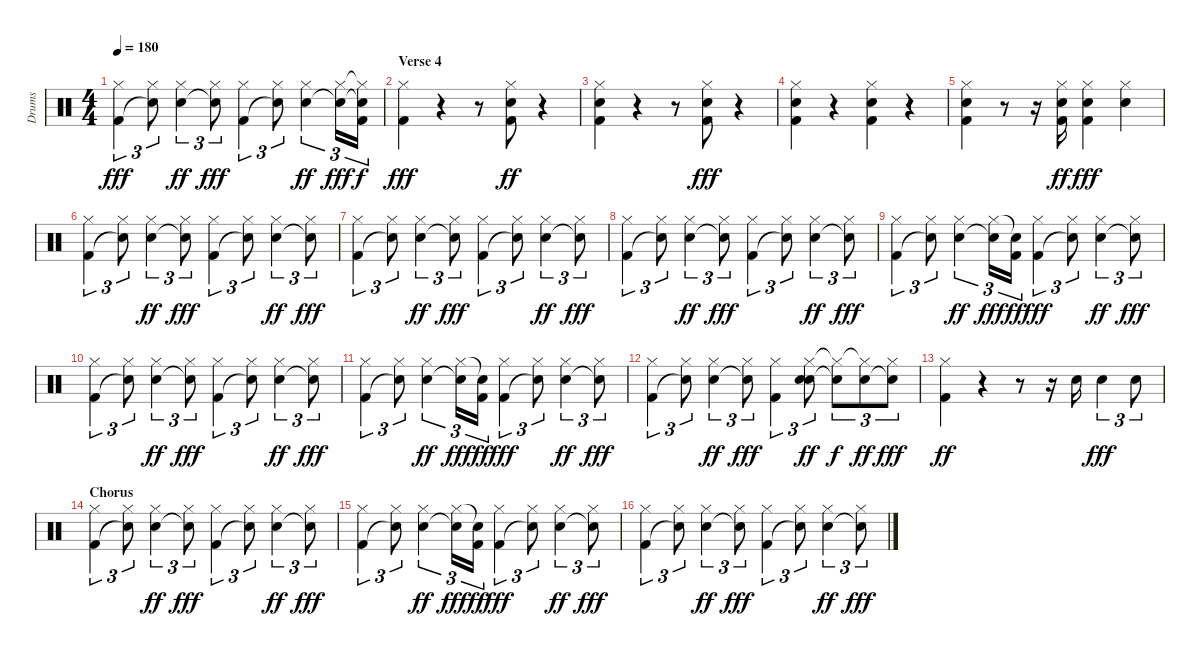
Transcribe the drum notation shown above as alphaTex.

\track ("Drums" "Drums") {instrument percussion}
\staff {score}
\articulation defaults
\ts (4 4)
\tempo 180
\clef neutral
\ks c
("Hi-Hat (closed)" "Kick (hit) 2").4{tu (3 2) dy fff} ("Hi-Hat (closed)" "Snare (hit)"{t}).8{tu (3 2)} ("Hi-Hat (closed)" "Electric Snare (hit)").4{tu (3 2) dy ff} ("Hi-Hat (closed)" "Snare (hit)"{t}).8{tu (3 2) dy fff} ("Hi-Hat (closed)" "Kick (hit) 2").4{tu (3 2)} ("Hi-Hat (closed)" "Snare (hit)"{t}).8{tu (3 2)} ("Hi-Hat (closed)" "Electric Snare (hit)").4{tu (3 2) dy ff} ("Hi-Hat (closed)" "Snare (hit)"{t}).16{tu (3 2) dy fff} ("Hi-Hat (closed)"{t} "Snare (hit)"{t} "Kick (hit) 2").16{tu (3 2) dy f} |
\section ("" "Verse 4")
("Hi-Hat (closed)" "Kick (hit) 2").4{dy fff} r.4 r.8 ("Hi-Hat (closed)" "Electric Snare (hit)" "Kick (hit) 2").8{dy ff} r.4 |
("Hi-Hat (closed)" "Electric Snare (hit)" "Kick (hit) 2").4 r.4 r.8 ("Hi-Hat (closed)" "Electric Snare (hit)" "Kick (hit) 2").8{dy fff} r.4 |
("Hi-Hat (closed)" "Electric Snare (hit)" "Kick (hit) 2").4 r.4 ("Hi-Hat (closed)" "Electric Snare (hit)" "Kick (hit) 2").4 r.4 |
("Hi-Hat (closed)" "Electric Snare (hit)" "Kick (hit) 2").4 r.8 r.16 ("Hi-Hat (closed)" "Electric Snare (hit)" "Kick (hit) 2").16{dy ff} ("Hi-Hat (closed)" "Electric Snare (hit)" "Kick (hit) 2").4{dy fff} ("Hi-Hat (closed)" "Electric Snare (hit)").4 |
("Hi-Hat (closed)" "Kick (hit) 2").4{tu (3 2)} ("Hi-Hat (closed)" "Snare (hit)"{t}).8{tu (3 2)} ("Hi-Hat (closed)" "Electric Snare (hit)").4{tu (3 2) dy ff} ("Hi-Hat (closed)" "Snare (hit)"{t}).8{tu (3 2) dy fff} ("Hi-Hat (closed)" "Kick (hit) 2").4{tu (3 2)} ("Hi-Hat (closed)" "Snare (hit)"{t}).8{tu (3 2)} ("Hi-Hat (closed)" "Electric Snare (hit)").4{tu (3 2) dy ff} ("Hi-Hat (closed)" "Snare (hit)"{t}).8{tu (3 2) dy fff} |
("Hi-Hat (closed)" "Kick (hit) 2").4{tu (3 2)} ("Hi-Hat (closed)" "Snare (hit)"{t}).8{tu (3 2)} ("Hi-Hat (closed)" "Electric Snare (hit)").4{tu (3 2) dy ff} ("Hi-Hat (closed)" "Snare (hit)"{t}).8{tu (3 2) dy fff} ("Hi-Hat (closed)" "Kick (hit) 2").4{tu (3 2)} ("Hi-Hat (closed)" "Snare (hit)"{t}).8{tu (3 2)} ("Hi-Hat (closed)" "Electric Snare (hit)").4{tu (3 2) dy ff} ("Hi-Hat (closed)" "Snare (hit)"{t}).8{tu (3 2) dy fff} |
("Hi-Hat (closed)" "Kick (hit) 2").4{tu (3 2)} ("Hi-Hat (closed)" "Snare (hit)"{t}).8{tu (3 2)} ("Hi-Hat (closed)" "Electric Snare (hit)").4{tu (3 2) dy ff} ("Hi-Hat (closed)" "Snare (hit)"{t}).8{tu (3 2) dy fff} ("Hi-Hat (closed)" "Kick (hit) 2").4{tu (3 2)} ("Hi-Hat (closed)" "Snare (hit)"{t}).8{tu (3 2)} ("Hi-Hat (closed)" "Electric Snare (hit)").4{tu (3 2) dy ff} ("Hi-Hat (closed)" "Snare (hit)"{t}).8{tu (3 2) dy fff} |
("Hi-Hat (closed)" "Kick (hit) 2").4{tu (3 2)} ("Hi-Hat (closed)" "Snare (hit)"{t}).8{tu (3 2)} ("Hi-Hat (closed)" "Electric Snare (hit)").4{tu (3 2) dy ff} ("Hi-Hat (closed)" "Snare (hit)"{t}).16{tu (3 2) dy fff} ("Snare (hit)"{t} "Kick (hit) 2").16{tu (3 2) dy ff} ("Hi-Hat (closed)" "Kick (hit) 2").4{tu (3 2) dy fff} ("Hi-Hat (closed)" "Snare (hit)"{t}).8{tu (3 2)} ("Hi-Hat (closed)" "Electric Snare (hit)").4{tu (3 2) dy ff} ("Hi-Hat (closed)" "Snare (hit)"{t}).8{tu (3 2) dy fff} |
("Hi-Hat (closed)" "Kick (hit) 2").4{tu (3 2)} ("Hi-Hat (closed)" "Snare (hit)"{t}).8{tu (3 2)} ("Hi-Hat (closed)" "Electric Snare (hit)").4{tu (3 2) dy ff} ("Hi-Hat (closed)" "Snare (hit)"{t}).8{tu (3 2) dy fff} ("Hi-Hat (closed)" "Kick (hit) 2").4{tu (3 2)} ("Hi-Hat (closed)" "Snare (hit)"{t}).8{tu (3 2)} ("Hi-Hat (closed)" "Electric Snare (hit)").4{tu (3 2) dy ff} ("Hi-Hat (closed)" "Snare (hit)"{t}).8{tu (3 2) dy fff} |
("Hi-Hat (closed)" "Kick (hit) 2").4{tu (3 2)} ("Hi-Hat (closed)" "Snare (hit)"{t}).8{tu (3 2)} ("Hi-Hat (closed)" "Electric Snare (hit)").4{tu (3 2) dy ff} ("Hi-Hat (closed)" "Snare (hit)"{t}).16{tu (3 2) dy fff} ("Snare (hit)"{t} "Kick (hit) 2").16{tu (3 2) dy ff} ("Hi-Hat (closed)" "Kick (hit) 2").4{tu (3 2) dy fff} ("Hi-Hat (closed)" "Snare (hit)"{t}).8{tu (3 2)} ("Hi-Hat (closed)" "Electric Snare (hit)").4{tu (3 2) dy ff} ("Hi-Hat (closed)" "Snare (hit)"{t}).8{tu (3 2) dy fff} |
("Hi-Hat (closed)" "Kick (hit) 2").4{tu (3 2)} ("Hi-Hat (closed)" "Snare (hit)"{t}).8{tu (3 2)} ("Hi-Hat (closed)" "Electric Snare (hit)").4{tu (3 2) dy ff} ("Hi-Hat (closed)" "Snare (hit)"{t}).8{tu (3 2) dy fff} ("Hi-Hat (closed)" "Kick (hit) 2").4{tu (3 2)} ("Hi-Hat (closed)" "Electric Snare (hit)" "Snare (hit)").8{tu (3 2) dy ff} ("Hi-Hat (closed)"{t} "Electric Snare (hit)"{t}).8{tu (3 2) dy f} ("Hi-Hat (closed)"{t} "Electric Snare (hit)").8{tu (3 2) dy ff} ("Hi-Hat (closed)" "Electric Snare (hit)"{t}).8{tu (3 2) dy fff} |
("Hi-Hat (closed)" "Kick (hit) 2").4{dy ff} r.4 r.8 r.16 "Electric Snare (hit)".16 "Electric Snare (hit)".4{tu (3 2) dy fff} "Electric Snare (hit)".8{tu (3 2)} |
\section ("" "Chorus")
("Hi-Hat (closed)" "Kick (hit) 2").4{tu (3 2)} ("Hi-Hat (closed)" "Snare (hit)"{t}).8{tu (3 2)} ("Hi-Hat (closed)" "Electric Snare (hit)").4{tu (3 2) dy ff} ("Hi-Hat (closed)" "Snare (hit)"{t}).8{tu (3 2) dy fff} ("Hi-Hat (closed)" "Kick (hit) 2").4{tu (3 2)} ("Hi-Hat (closed)" "Snare (hit)"{t}).8{tu (3 2)} ("Hi-Hat (closed)" "Electric Snare (hit)").4{tu (3 2) dy ff} ("Hi-Hat (closed)" "Snare (hit)"{t}).8{tu (3 2) dy fff} |
("Hi-Hat (closed)" "Kick (hit) 2").4{tu (3 2)} ("Hi-Hat (closed)" "Snare (hit)"{t}).8{tu (3 2)} ("Hi-Hat (closed)" "Electric Snare (hit)").4{tu (3 2) dy ff} ("Hi-Hat (closed)" "Snare (hit)"{t}).16{tu (3 2) dy fff} ("Snare (hit)"{t} "Kick (hit) 2").16{tu (3 2) dy ff} ("Hi-Hat (closed)" "Kick (hit) 2").4{tu (3 2) dy fff} ("Hi-Hat (closed)" "Snare (hit)"{t}).8{tu (3 2)} ("Hi-Hat (closed)" "Electric Snare (hit)").4{tu (3 2) dy ff} ("Hi-Hat (closed)" "Snare (hit)"{t}).8{tu (3 2) dy fff} |
("Hi-Hat (closed)" "Kick (hit) 2").4{tu (3 2)} ("Hi-Hat (closed)" "Snare (hit)"{t}).8{tu (3 2)} ("Hi-Hat (closed)" "Electric Snare (hit)").4{tu (3 2) dy ff} ("Hi-Hat (closed)" "Snare (hit)"{t}).8{tu (3 2) dy fff} ("Hi-Hat (closed)" "Kick (hit) 2").4{tu (3 2)} ("Hi-Hat (closed)" "Snare (hit)"{t}).8{tu (3 2)} ("Hi-Hat (closed)" "Electric Snare (hit)").4{tu (3 2) dy ff} ("Hi-Hat (closed)" "Snare (hit)"{t}).8{tu (3 2) dy fff}
